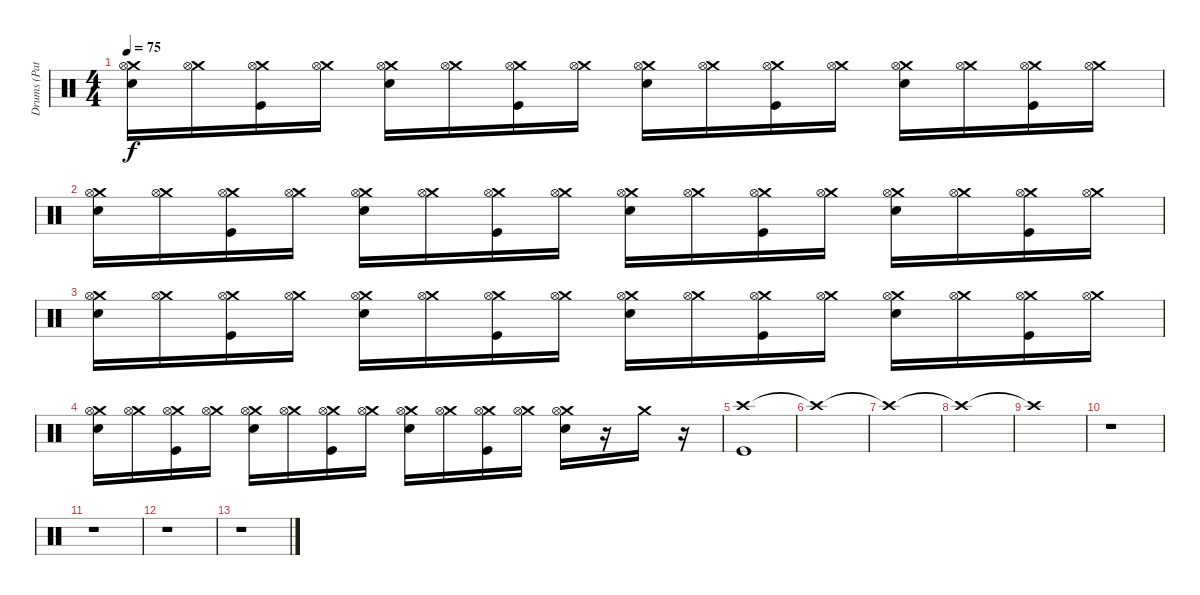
\track ("Drums (Patrick Wilson)" "Drums (Pat") {instrument percussion}
\staff {score}
\articulation defaults
\ts (4 4)
\tempo 75
\clef neutral
\ks c
("Crash medium (hit)" "Hi-Hat (open)" "Electric Snare (hit)").16{dy f} ("Crash medium (hit)" "Hi-Hat (open)").16 ("Crash medium (hit)" "Hi-Hat (open)" "Kick (hit)").16 ("Crash medium (hit)" "Hi-Hat (open)").16 ("Crash medium (hit)" "Hi-Hat (open)" "Electric Snare (hit)").16 ("Crash medium (hit)" "Hi-Hat (open)").16 ("Crash medium (hit)" "Hi-Hat (open)" "Kick (hit)").16 ("Crash medium (hit)" "Hi-Hat (open)").16 ("Crash medium (hit)" "Hi-Hat (open)" "Electric Snare (hit)").16 ("Crash medium (hit)" "Hi-Hat (open)").16 ("Crash medium (hit)" "Hi-Hat (open)" "Kick (hit)").16 ("Crash medium (hit)" "Hi-Hat (open)").16 ("Crash medium (hit)" "Hi-Hat (open)" "Electric Snare (hit)").16 ("Crash medium (hit)" "Hi-Hat (open)").16 ("Crash medium (hit)" "Hi-Hat (open)" "Kick (hit)").16 ("Crash medium (hit)" "Hi-Hat (open)").16 |
("Crash medium (hit)" "Hi-Hat (open)" "Electric Snare (hit)").16 ("Crash medium (hit)" "Hi-Hat (open)").16 ("Crash medium (hit)" "Hi-Hat (open)" "Kick (hit)").16 ("Crash medium (hit)" "Hi-Hat (open)").16 ("Crash medium (hit)" "Hi-Hat (open)" "Electric Snare (hit)").16 ("Crash medium (hit)" "Hi-Hat (open)").16 ("Crash medium (hit)" "Hi-Hat (open)" "Kick (hit)").16 ("Crash medium (hit)" "Hi-Hat (open)").16 ("Crash medium (hit)" "Hi-Hat (open)" "Electric Snare (hit)").16 ("Crash medium (hit)" "Hi-Hat (open)").16 ("Crash medium (hit)" "Hi-Hat (open)" "Kick (hit)").16 ("Crash medium (hit)" "Hi-Hat (open)").16 ("Crash medium (hit)" "Hi-Hat (open)" "Electric Snare (hit)").16 ("Crash medium (hit)" "Hi-Hat (open)").16 ("Crash medium (hit)" "Hi-Hat (open)" "Kick (hit)").16 ("Crash medium (hit)" "Hi-Hat (open)").16 |
("Crash medium (hit)" "Hi-Hat (open)" "Electric Snare (hit)").16 ("Crash medium (hit)" "Hi-Hat (open)").16 ("Crash medium (hit)" "Hi-Hat (open)" "Kick (hit)").16 ("Crash medium (hit)" "Hi-Hat (open)").16 ("Crash medium (hit)" "Hi-Hat (open)" "Electric Snare (hit)").16 ("Crash medium (hit)" "Hi-Hat (open)").16 ("Crash medium (hit)" "Hi-Hat (open)" "Kick (hit)").16 ("Crash medium (hit)" "Hi-Hat (open)").16 ("Crash medium (hit)" "Hi-Hat (open)" "Electric Snare (hit)").16 ("Crash medium (hit)" "Hi-Hat (open)").16 ("Crash medium (hit)" "Hi-Hat (open)" "Kick (hit)").16 ("Crash medium (hit)" "Hi-Hat (open)").16 ("Crash medium (hit)" "Hi-Hat (open)" "Electric Snare (hit)").16 ("Crash medium (hit)" "Hi-Hat (open)").16 ("Crash medium (hit)" "Hi-Hat (open)" "Kick (hit)").16 ("Crash medium (hit)" "Hi-Hat (open)").16 |
("Crash medium (hit)" "Hi-Hat (open)" "Electric Snare (hit)").16 ("Crash medium (hit)" "Hi-Hat (open)").16 ("Crash medium (hit)" "Hi-Hat (open)" "Kick (hit)").16 ("Crash medium (hit)" "Hi-Hat (open)").16 ("Crash medium (hit)" "Hi-Hat (open)" "Electric Snare (hit)").16 ("Crash medium (hit)" "Hi-Hat (open)").16 ("Crash medium (hit)" "Hi-Hat (open)" "Kick (hit)").16 ("Crash medium (hit)" "Hi-Hat (open)").16 ("Crash medium (hit)" "Hi-Hat (open)" "Electric Snare (hit)").16 ("Crash medium (hit)" "Hi-Hat (open)").16 ("Crash medium (hit)" "Hi-Hat (open)" "Kick (hit)").16 ("Crash medium (hit)" "Hi-Hat (open)").16 ("Crash medium (hit)" "Hi-Hat (open)" "Electric Snare (hit)").16 r.16 "Crash medium (hit)".16 r.16 |
("Crash high (hit)" "Kick (hit)").1 |
"Crash high (hit)"{t}.1 |
"Crash high (hit)"{t}.1 |
"Crash high (hit)"{t}.1 |
"Crash high (hit)"{t}.1 |
r.1 |
r.1 |
r.1 |
r.1
